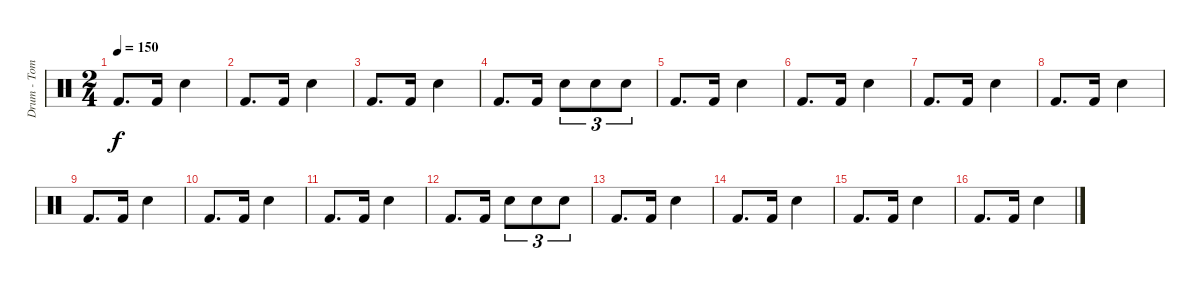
\track ("Drum - Tom" "Drum - Tom") {instrument percussion}
\staff {score}
\articulation defaults
\ts (2 4)
\tempo 150
\clef neutral
\ks c "Kick (hit) 2".8{d dy f} "Kick (hit) 2".16 "Electric Snare (hit)".4
|
"Kick (hit) 2".8{d} "Kick (hit) 2".16 "Electric Snare (hit)".4 |
"Kick (hit) 2".8{d} "Kick (hit) 2".16 "Electric Snare (hit)".4 |
"Kick (hit) 2".8{d} "Kick (hit) 2".16 "Electric Snare (hit)".8{tu (3 2)} "Electric Snare (hit)".8{tu (3 2)} "Electric Snare (hit)".8{tu (3 2)} |
"Kick (hit) 2".8{d} "Kick (hit) 2".16 "Electric Snare (hit)".4 |
"Kick (hit) 2".8{d} "Kick (hit) 2".16 "Electric Snare (hit)".4 |
"Kick (hit) 2".8{d} "Kick (hit) 2".16 "Electric Snare (hit)".4 |
"Kick (hit) 2".8{d} "Kick (hit) 2".16 "Electric Snare (hit)".4 |
"Kick (hit) 2".8{d} "Kick (hit) 2".16 "Electric Snare (hit)".4 |
"Kick (hit) 2".8{d} "Kick (hit) 2".16 "Electric Snare (hit)".4 |
"Kick (hit) 2".8{d} "Kick (hit) 2".16 "Electric Snare (hit)".4 |
"Kick (hit) 2".8{d} "Kick (hit) 2".16 "Electric Snare (hit)".8{tu (3 2)} "Electric Snare (hit)".8{tu (3 2)} "Electric Snare (hit)".8{tu (3 2)} |
"Kick (hit) 2".8{d} "Kick (hit) 2".16 "Electric Snare (hit)".4 |
"Kick (hit) 2".8{d} "Kick (hit) 2".16 "Electric Snare (hit)".4 |
"Kick (hit) 2".8{d} "Kick (hit) 2".16 "Electric Snare (hit)".4 |
"Kick (hit) 2".8{d} "Kick (hit) 2".16 "Electric Snare (hit)".4
